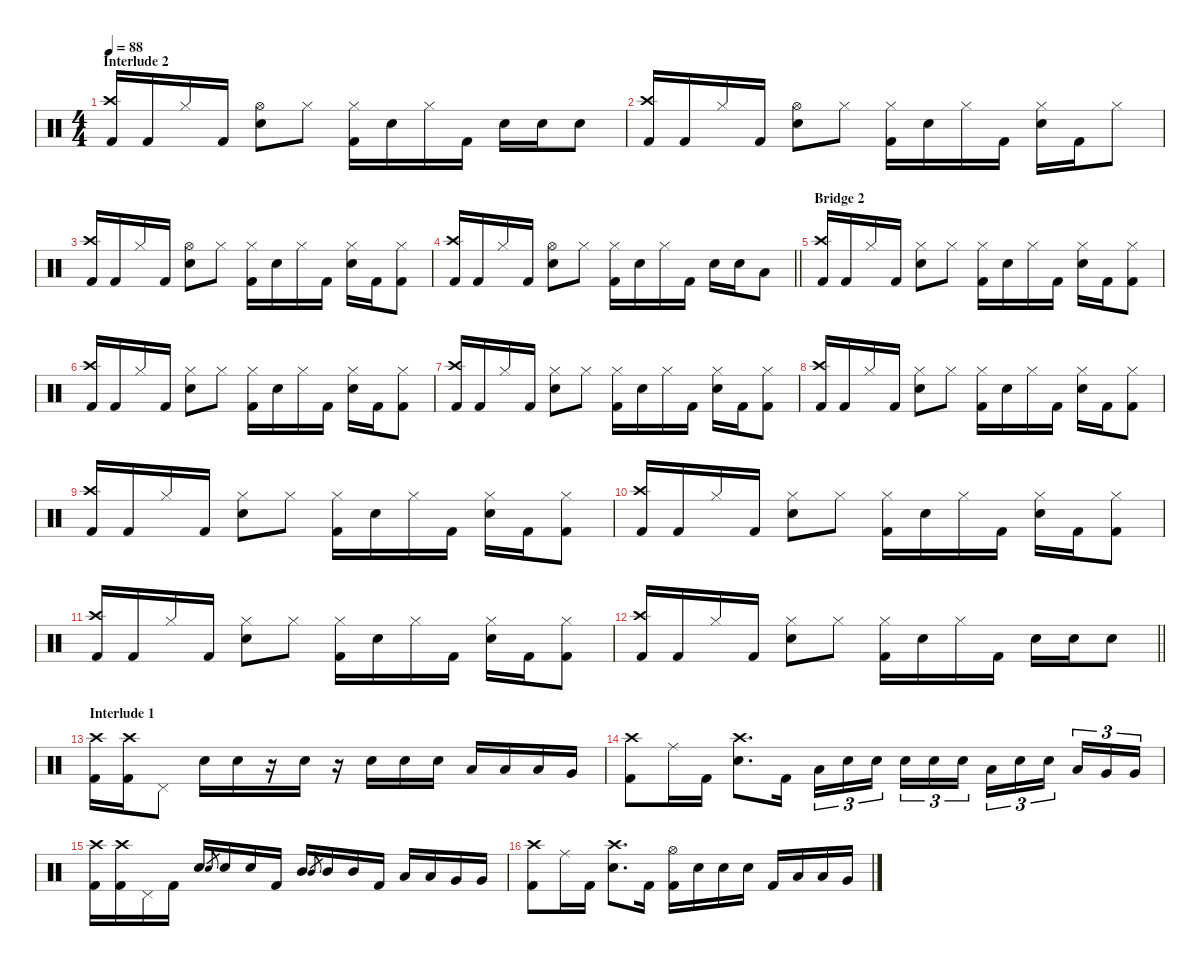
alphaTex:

\defaultSystemsLayout 4
\hideDynamics
\bracketExtendMode nobrackets
\singleTrackTrackNamePolicy hidden
\multiTrackTrackNamePolicy hidden
\firstSystemTrackNameMode fullname
\firstSystemTrackNameOrientation horizontal
\otherSystemsTrackNameOrientation horizontal
\track ("Drums" "drm.") {instrument percussion}
\staff {score}
\articulation defaults
\ts (4 4)
\section ("" "Interlude 2")
\tempo 88
\clef neutral
\ks c
("Crash high (hit)" "Kick (hit) 2").16{dy f beam Up} "Kick (hit) 2".16{beam Up} "Hi-Hat (closed)".16{beam Up} "Kick (hit) 2".16{beam Up} ("Hi-Hat (open)" "Snare (hit) 2").8{beam Down} "Hi-Hat (closed)".8{beam Down} ("Hi-Hat (closed)" "Kick (hit) 2").16{beam Down} "Snare (hit) 2".16{beam Down} "Hi-Hat (closed)".16{beam Down} "Kick (hit) 2".16{beam Down} "Snare (hit) 2".16{beam Down} "Snare (hit) 2".16{beam Down} "Snare (hit) 2".8{beam Down} |
("Crash high (hit)" "Kick (hit) 2").16{beam Up} "Kick (hit) 2".16{beam Up} "Hi-Hat (closed)".16{beam Up} "Kick (hit) 2".16{beam Up} ("Hi-Hat (open)" "Snare (hit) 2").8{beam Down} "Hi-Hat (closed)".8{beam Down} ("Hi-Hat (closed)" "Kick (hit) 2").16{beam Down} "Snare (hit) 2".16{beam Down} "Hi-Hat (closed)".16{beam Down} "Kick (hit) 2".16{beam Down} ("Hi-Hat (closed)" "Snare (hit) 2").16{beam Down} "Kick (hit) 2".16{beam Down} "Hi-Hat (closed)".8{beam Down} |
("Crash high (hit)" "Kick (hit) 2").16{beam Up} "Kick (hit) 2".16{beam Up} "Hi-Hat (closed)".16{beam Up} "Kick (hit) 2".16{beam Up} ("Hi-Hat (open)" "Snare (hit) 2").8{beam Down} "Hi-Hat (closed)".8{beam Down} ("Hi-Hat (closed)" "Kick (hit) 2").16{beam Down} "Snare (hit) 2".16{beam Down} "Hi-Hat (closed)".16{beam Down} "Kick (hit) 2".16{beam Down} ("Hi-Hat (closed)" "Snare (hit) 2").16{beam Down} "Kick (hit) 2".16{beam Down} ("Hi-Hat (closed)" "Kick (hit) 2").8{beam Down} |
\barLineRight lightlight
("Crash high (hit)" "Kick (hit) 2").16{beam Up} "Kick (hit) 2".16{beam Up} "Hi-Hat (closed)".16{beam Up} "Kick (hit) 2".16{beam Up} ("Hi-Hat (open)" "Snare (hit) 2").8{beam Down} "Hi-Hat (closed)".8{beam Down} ("Hi-Hat (closed)" "Kick (hit) 2").16{beam Down} "Snare (hit) 2".16{beam Down} "Hi-Hat (closed)".16{beam Down} "Kick (hit) 2".16{beam Down} "Snare (hit) 2".16{beam Down} "Snare (hit) 2".16{beam Down} "Low Tom (hit)".8{beam Down} |
\section ("" "Bridge 2")
("Crash high (hit)" "Kick (hit) 2").16{beam Up} "Kick (hit) 2".16{beam Up} "Hi-Hat (closed)".16{beam Up} "Kick (hit) 2".16{beam Up} ("Hi-Hat (closed)" "Snare (hit) 2").8{beam Down} "Hi-Hat (closed)".8{beam Down} ("Hi-Hat (closed)" "Kick (hit) 2").16{beam Down} "Snare (hit) 2".16{beam Down} "Hi-Hat (closed)".16{beam Down} "Kick (hit) 2".16{beam Down} ("Hi-Hat (closed)" "Snare (hit) 2").16{beam Down} "Kick (hit) 2".16{beam Down} ("Hi-Hat (closed)" "Kick (hit) 2").8{beam Down} |
("Crash high (hit)" "Kick (hit) 2").16{beam Up} "Kick (hit) 2".16{beam Up} "Hi-Hat (closed)".16{beam Up} "Kick (hit) 2".16{beam Up} ("Hi-Hat (closed)" "Snare (hit) 2").8{beam Down} "Hi-Hat (closed)".8{beam Down} ("Hi-Hat (closed)" "Kick (hit) 2").16{beam Down} "Snare (hit) 2".16{beam Down} "Hi-Hat (closed)".16{beam Down} "Kick (hit) 2".16{beam Down} ("Hi-Hat (closed)" "Snare (hit) 2").16{beam Down} "Kick (hit) 2".16{beam Down} ("Hi-Hat (closed)" "Kick (hit) 2").8{beam Down} |
("Crash high (hit)" "Kick (hit) 2").16{beam Up} "Kick (hit) 2".16{beam Up} "Hi-Hat (closed)".16{beam Up} "Kick (hit) 2".16{beam Up} ("Hi-Hat (closed)" "Snare (hit) 2").8{beam Down} "Hi-Hat (closed)".8{beam Down} ("Hi-Hat (closed)" "Kick (hit) 2").16{beam Down} "Snare (hit) 2".16{beam Down} "Hi-Hat (closed)".16{beam Down} "Kick (hit) 2".16{beam Down} ("Hi-Hat (closed)" "Snare (hit) 2").16{beam Down} "Kick (hit) 2".16{beam Down} ("Hi-Hat (closed)" "Kick (hit) 2").8{beam Down} |
("Crash high (hit)" "Kick (hit) 2").16{beam Up} "Kick (hit) 2".16{beam Up} "Hi-Hat (closed)".16{beam Up} "Kick (hit) 2".16{beam Up} ("Hi-Hat (closed)" "Snare (hit) 2").8{beam Down} "Hi-Hat (closed)".8{beam Down} ("Hi-Hat (closed)" "Kick (hit) 2").16{beam Down} "Snare (hit) 2".16{beam Down} "Hi-Hat (closed)".16{beam Down} "Kick (hit) 2".16{beam Down} ("Hi-Hat (closed)" "Snare (hit) 2").16{beam Down} "Kick (hit) 2".16{beam Down} ("Hi-Hat (closed)" "Kick (hit) 2").8{beam Down} |
("Crash high (hit)" "Kick (hit) 2").16{beam Up} "Kick (hit) 2".16{beam Up} "Hi-Hat (closed)".16{beam Up} "Kick (hit) 2".16{beam Up} ("Hi-Hat (closed)" "Snare (hit) 2").8{beam Down} "Hi-Hat (closed)".8{beam Down} ("Hi-Hat (closed)" "Kick (hit) 2").16{beam Down} "Snare (hit) 2".16{beam Down} "Hi-Hat (closed)".16{beam Down} "Kick (hit) 2".16{beam Down} ("Hi-Hat (closed)" "Snare (hit) 2").16{beam Down} "Kick (hit) 2".16{beam Down} ("Hi-Hat (closed)" "Kick (hit) 2").8{beam Down} |
("Crash high (hit)" "Kick (hit) 2").16{beam Up} "Kick (hit) 2".16{beam Up} "Hi-Hat (closed)".16{beam Up} "Kick (hit) 2".16{beam Up} ("Hi-Hat (closed)" "Snare (hit) 2").8{beam Down} "Hi-Hat (closed)".8{beam Down} ("Hi-Hat (closed)" "Kick (hit) 2").16{beam Down} "Snare (hit) 2".16{beam Down} "Hi-Hat (closed)".16{beam Down} "Kick (hit) 2".16{beam Down} ("Hi-Hat (closed)" "Snare (hit) 2").16{beam Down} "Kick (hit) 2".16{beam Down} ("Hi-Hat (closed)" "Kick (hit) 2").8{beam Down} |
("Crash high (hit)" "Kick (hit) 2").16{beam Up} "Kick (hit) 2".16{beam Up} "Hi-Hat (closed)".16{beam Up} "Kick (hit) 2".16{beam Up} ("Hi-Hat (closed)" "Snare (hit) 2").8{beam Down} "Hi-Hat (closed)".8{beam Down} ("Hi-Hat (closed)" "Kick (hit) 2").16{beam Down} "Snare (hit) 2".16{beam Down} "Hi-Hat (closed)".16{beam Down} "Kick (hit) 2".16{beam Down} ("Hi-Hat (closed)" "Snare (hit) 2").16{beam Down} "Kick (hit) 2".16{beam Down} ("Hi-Hat (closed)" "Kick (hit) 2").8{beam Down} |
\barLineRight lightlight
("Crash high (hit)" "Kick (hit) 2").16{beam Up} "Kick (hit) 2".16{beam Up} "Hi-Hat (closed)".16{beam Up} "Kick (hit) 2".16{beam Up} ("Hi-Hat (closed)" "Snare (hit) 2").8{beam Down} "Hi-Hat (closed)".8{beam Down} ("Hi-Hat (closed)" "Kick (hit) 2").16{beam Down} "Snare (hit) 2".16{beam Down} "Hi-Hat (closed)".16{beam Down} "Kick (hit) 2".16{beam Down} "Snare (hit) 2".16{beam Down} "Snare (hit) 2".16{beam Down} "Snare (hit) 2".8{beam Down} |
\section ("" "Interlude 1")
("Crash high (hit)" "Kick (hit) 2").16{beam Down} ("Crash high (hit)" "Kick (hit) 2").16{beam Down} "Pedal Hi-Hat (hit)".8{beam Down} "Snare (hit) 2".16{beam Down} "Snare (hit) 2".16{beam Down} r.16{beam Down} "Snare (hit) 2".16{beam Down} r.16{beam Down} "Snare (hit) 2".16{beam Down} "Snare (hit) 2".16{beam Down} "Snare (hit) 2".16{beam Down} "Low Tom (hit)".16{beam Up} "Low Tom (hit)".16{beam Up} "Low Tom (hit)".16{beam Up} "Very Low Tom (hit)".16{beam Up} |
("Crash high (hit)" "Kick (hit) 2").8{beam Down} "Ride (middle)".16{beam Down} "Kick (hit) 2".16{beam Down} ("Crash high (hit)" "Snare (hit) 2").8{d beam Down} "Kick (hit) 2".16{beam Down} "Low Tom (hit)".16{tu (3 2) beam Down} "Snare (hit) 2".16{tu (3 2) beam Down} "Snare (hit) 2".16{tu (3 2) beam Down} "Snare (hit) 2".16{tu (3 2) beam Down} "Snare (hit) 2".16{tu (3 2) beam Down} "Snare (hit) 2".16{tu (3 2) beam Down} "Low Tom (hit)".16{tu (3 2) beam Down} "Snare (hit) 2".16{tu (3 2) beam Down} "Snare (hit) 2".16{tu (3 2) beam Down} "Low Tom (hit)".16{tu (3 2) beam Up} "Very Low Tom (hit)".16{tu (3 2) beam Up} "Very Low Tom (hit)".16{tu (3 2) beam Up} |
("Crash high (hit)" "Kick (hit) 2").16{beam Down} ("Crash high (hit)" "Kick (hit) 2").16{beam Down} "Pedal Hi-Hat (hit)".16{beam Down} "Kick (hit) 2".16{beam Down} "Snare (hit) 2".16{beam Up} "Snare (hit) 2".8{gr dy mf beam Up} "Snare (hit) 2".16{dy f beam Up} "Snare (hit) 2".16{beam Up} "Kick (hit) 2".16{beam Up} "Mid Tom (hit)".16{beam Up} "Mid Tom (hit)".8{gr dy mf beam Up} "Mid Tom (hit)".16{dy f beam Up} "Mid Tom (hit)".16{beam Up} "Kick (hit) 2".16{beam Up} "Low Tom (hit)".16{beam Up} "Low Tom (hit)".16{beam Up} "Very Low Tom (hit)".16{beam Up} "Very Low Tom (hit)".16{beam Up} |
("Crash high (hit)" "Kick (hit) 2").8{beam Down} "Ride (middle)".16{beam Down} "Kick (hit) 2".16{beam Down} ("Crash high (hit)" "Snare (hit) 2").8{d beam Down} "Kick (hit) 2".16{beam Down} ("Hi-Hat (open)" "Kick (hit) 2").16{beam Down} "Snare (hit) 2".16{beam Down} "Snare (hit) 2".16{beam Down} "Snare (hit) 2".16{beam Down} "Kick (hit) 2".16{beam Up} "Low Tom (hit)".16{beam Up} "Low Tom (hit)".16{beam Up} "Very Low Tom (hit)".16{beam Up}
